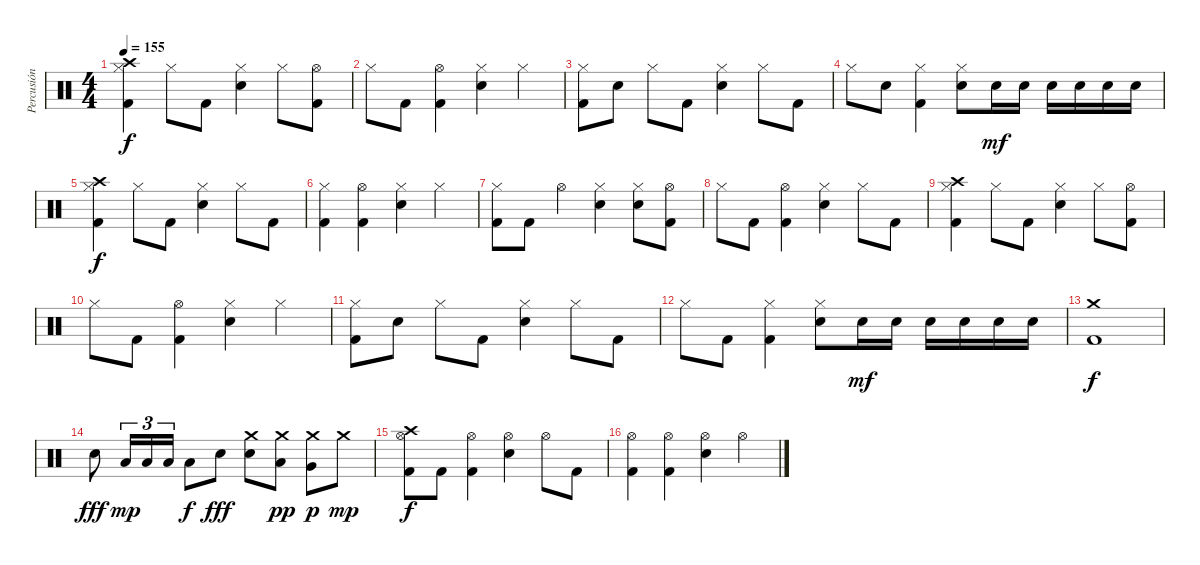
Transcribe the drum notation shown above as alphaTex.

\track ("Percusión" "Percusión") {instrument percussion}
\staff {score}
\articulation defaults
\ts (4 4)
\tempo 155
\clef neutral
\ks c
("Crash high (hit)" "Hi-Hat (closed)" "Kick (hit) 2").4{dy f} "Hi-Hat (closed)".8 "Kick (hit) 2".8 ("Hi-Hat (closed)" "Electric Snare (hit)").4 "Hi-Hat (closed)".8 ("Hi-Hat (open)" "Kick (hit) 2").8 |
"Hi-Hat (closed)".8 "Kick (hit) 2".8 ("Hi-Hat (open)" "Kick (hit) 2").4 ("Hi-Hat (closed)" "Electric Snare (hit)").4 "Hi-Hat (closed)".4 |
("Hi-Hat (closed)" "Kick (hit) 2").8 "Electric Snare (hit)".8 "Hi-Hat (closed)".8 "Kick (hit) 2".8 ("Hi-Hat (closed)" "Electric Snare (hit)").4 "Hi-Hat (closed)".8 "Kick (hit) 2".8 |
"Hi-Hat (closed)".8 "Electric Snare (hit)".8 ("Hi-Hat (closed)" "Kick (hit) 2").4 ("Hi-Hat (closed)" "Electric Snare (hit)").8 "Electric Snare (hit)".16{dy mf} "Electric Snare (hit)".16 "Electric Snare (hit)".16 "Electric Snare (hit)".16 "Electric Snare (hit)".16 "Electric Snare (hit)".16 |
("Crash high (hit)" "Hi-Hat (closed)" "Kick (hit) 2").4{dy f} "Hi-Hat (closed)".8 "Kick (hit) 2".8 ("Hi-Hat (closed)" "Electric Snare (hit)").4 "Hi-Hat (closed)".8 "Kick (hit) 2".8 |
("Hi-Hat (closed)" "Kick (hit) 2").4 ("Hi-Hat (open)" "Kick (hit) 2").4 ("Hi-Hat (closed)" "Electric Snare (hit)").4 "Hi-Hat (closed)".4 |
("Hi-Hat (closed)" "Kick (hit) 2").8 "Kick (hit) 2".8 "Hi-Hat (open)".4 ("Hi-Hat (closed)" "Electric Snare (hit)").4 ("Hi-Hat (closed)" "Electric Snare (hit)").8 ("Hi-Hat (open)" "Kick (hit) 2").8 |
"Hi-Hat (closed)".8 "Kick (hit) 2".8 ("Hi-Hat (open)" "Kick (hit) 2").4 ("Hi-Hat (closed)" "Electric Snare (hit)").4 "Hi-Hat (closed)".8 "Kick (hit) 2".8 |
("Crash high (hit)" "Hi-Hat (closed)" "Kick (hit) 2").4 "Hi-Hat (closed)".8 "Kick (hit) 2".8 ("Hi-Hat (closed)" "Electric Snare (hit)").4 "Hi-Hat (closed)".8 ("Hi-Hat (open)" "Kick (hit) 2").8 |
"Hi-Hat (closed)".8 "Kick (hit) 2".8 ("Hi-Hat (open)" "Kick (hit) 2").4 ("Hi-Hat (closed)" "Electric Snare (hit)").4 "Hi-Hat (closed)".4 |
("Hi-Hat (closed)" "Kick (hit) 2").8 "Electric Snare (hit)".8 "Hi-Hat (closed)".8 "Kick (hit) 2".8 ("Hi-Hat (closed)" "Electric Snare (hit)").4 "Hi-Hat (closed)".8 "Kick (hit) 2".8 |
"Hi-Hat (closed)".8 "Kick (hit) 2".8 ("Hi-Hat (closed)" "Kick (hit) 2").4 ("Hi-Hat (closed)" "Electric Snare (hit)").8 "Electric Snare (hit)".16{dy mf} "Electric Snare (hit)".16 "Electric Snare (hit)".16 "Electric Snare (hit)".16 "Electric Snare (hit)".16 "Electric Snare (hit)".16 |
("Crash medium (hit)" "Kick (hit) 2").1{dy f} |
"Electric Snare (hit)".8{dy fff} "Low Tom (hit)".16{tu (3 2) dy mp} "Low Tom (hit)".16{tu (3 2)} "Low Tom (hit)".16{tu (3 2)} "Low Tom (hit)".8{dy f} "Electric Snare (hit)".8{dy fff} ("Crash medium (hit)" "Electric Snare (hit)").8 ("Crash medium (hit)" "Low Floor Tom (hit)").8{dy pp} ("Crash medium (hit)" "Very Low Tom (hit)").8{dy p} "Crash medium (hit)".8{dy mp} |
("Crash high (hit)" "Hi-Hat (open)" "Kick (hit) 2").8{dy f} "Kick (hit) 2".8 ("Hi-Hat (open)" "Kick (hit) 2").4 ("Hi-Hat (open)" "Snare (hit) 2").4 "Hi-Hat (open)".8 "Kick (hit) 2".8 |
("Hi-Hat (open)" "Kick (hit) 2").4 ("Hi-Hat (open)" "Kick (hit) 2").4 ("Hi-Hat (open)" "Snare (hit) 2").4 "Hi-Hat (open)".4
